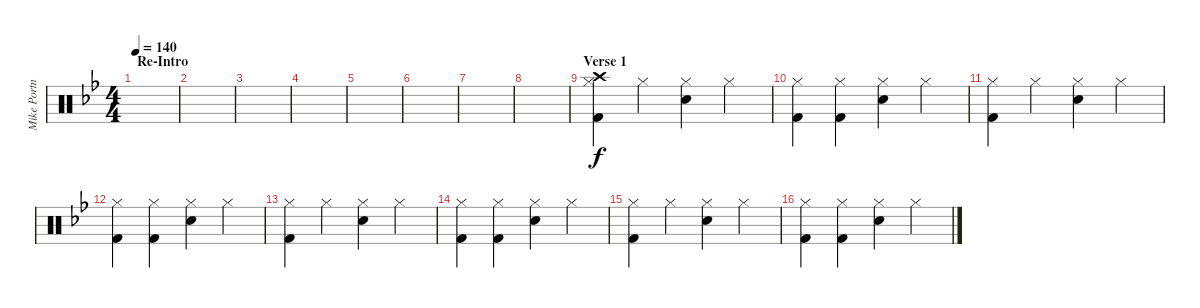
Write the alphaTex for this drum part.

\track ("Mike Portnoy - Drums" "Mike Portn") {instrument percussion}
\staff {score}
\articulation defaults
\ts (4 4)
\section ("" "Re-Intro")
\tempo 140
\clef neutral
\ks bb
|
|
|
|
|
|
\section ("" "")
|
|
\section ("" "Verse 1")
("Crash high (hit)" "Hi-Hat (closed)" "Kick (hit) 2").4 "Hi-Hat (closed)".4 ("Hi-Hat (closed)" "Snare (hit) 2").4 "Hi-Hat (closed)".4 |
("Hi-Hat (closed)" "Kick (hit) 2").4 ("Hi-Hat (closed)" "Kick (hit) 2").4 ("Hi-Hat (closed)" "Snare (hit) 2").4 "Hi-Hat (closed)".4 |
("Hi-Hat (closed)" "Kick (hit) 2").4 "Hi-Hat (closed)".4 ("Hi-Hat (closed)" "Snare (hit) 2").4 "Hi-Hat (closed)".4 |
("Hi-Hat (closed)" "Kick (hit) 2").4 ("Hi-Hat (closed)" "Kick (hit) 2").4 ("Hi-Hat (closed)" "Snare (hit) 2").4 "Hi-Hat (closed)".4 |
("Hi-Hat (closed)" "Kick (hit) 2").4 "Hi-Hat (closed)".4 ("Hi-Hat (closed)" "Snare (hit) 2").4 "Hi-Hat (closed)".4 |
("Hi-Hat (closed)" "Kick (hit) 2").4 ("Hi-Hat (closed)" "Kick (hit) 2").4 ("Hi-Hat (closed)" "Snare (hit) 2").4 "Hi-Hat (closed)".4 |
("Hi-Hat (closed)" "Kick (hit) 2").4 "Hi-Hat (closed)".4 ("Hi-Hat (closed)" "Snare (hit) 2").4 "Hi-Hat (closed)".4 |
("Hi-Hat (closed)" "Kick (hit) 2").4 ("Hi-Hat (closed)" "Kick (hit) 2").4 ("Hi-Hat (closed)" "Snare (hit) 2").4 "Hi-Hat (closed)".4
